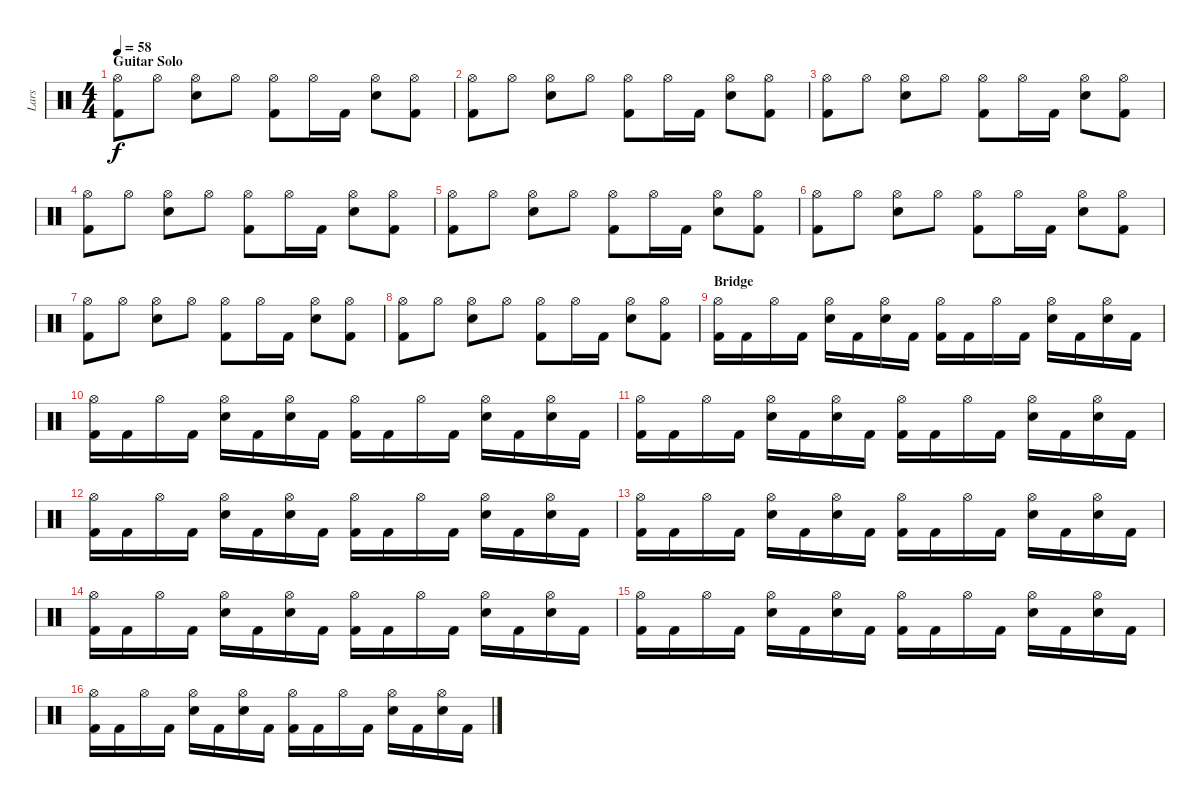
\track ("Lars " "Lars ") {instrument percussion}
\staff {score}
\articulation defaults
\ts (4 4)
\section ("" "Guitar Solo")
\tempo 58
\clef neutral
\ks c
("Kick (hit) 2" "Hi-Hat (open)").8{dy f} "Hi-Hat (open)".8 ("Snare (hit) 2" "Hi-Hat (open)").8 "Hi-Hat (open)".8 ("Kick (hit) 2" "Hi-Hat (open)").8 "Hi-Hat (open)".16 "Kick (hit) 2".16 ("Snare (hit) 2" "Hi-Hat (open)").8 ("Kick (hit) 2" "Hi-Hat (open)").8 |
("Kick (hit) 2" "Hi-Hat (open)").8 "Hi-Hat (open)".8 ("Snare (hit) 2" "Hi-Hat (open)").8 "Hi-Hat (open)".8 ("Kick (hit) 2" "Hi-Hat (open)").8 "Hi-Hat (open)".16 "Kick (hit) 2".16 ("Snare (hit) 2" "Hi-Hat (open)").8 ("Kick (hit) 2" "Hi-Hat (open)").8 |
("Kick (hit) 2" "Hi-Hat (open)").8 "Hi-Hat (open)".8 ("Snare (hit) 2" "Hi-Hat (open)").8 "Hi-Hat (open)".8 ("Kick (hit) 2" "Hi-Hat (open)").8 "Hi-Hat (open)".16 "Kick (hit) 2".16 ("Snare (hit) 2" "Hi-Hat (open)").8 ("Kick (hit) 2" "Hi-Hat (open)").8 |
("Kick (hit) 2" "Hi-Hat (open)").8 "Hi-Hat (open)".8 ("Snare (hit) 2" "Hi-Hat (open)").8 "Hi-Hat (open)".8 ("Kick (hit) 2" "Hi-Hat (open)").8 "Hi-Hat (open)".16 "Kick (hit) 2".16 ("Snare (hit) 2" "Hi-Hat (open)").8 ("Kick (hit) 2" "Hi-Hat (open)").8 |
("Kick (hit) 2" "Hi-Hat (open)").8 "Hi-Hat (open)".8 ("Snare (hit) 2" "Hi-Hat (open)").8 "Hi-Hat (open)".8 ("Kick (hit) 2" "Hi-Hat (open)").8 "Hi-Hat (open)".16 "Kick (hit) 2".16 ("Snare (hit) 2" "Hi-Hat (open)").8 ("Kick (hit) 2" "Hi-Hat (open)").8 |
("Kick (hit) 2" "Hi-Hat (open)").8 "Hi-Hat (open)".8 ("Snare (hit) 2" "Hi-Hat (open)").8 "Hi-Hat (open)".8 ("Kick (hit) 2" "Hi-Hat (open)").8 "Hi-Hat (open)".16 "Kick (hit) 2".16 ("Snare (hit) 2" "Hi-Hat (open)").8 ("Kick (hit) 2" "Hi-Hat (open)").8 |
("Kick (hit) 2" "Hi-Hat (open)").8 "Hi-Hat (open)".8 ("Snare (hit) 2" "Hi-Hat (open)").8 "Hi-Hat (open)".8 ("Kick (hit) 2" "Hi-Hat (open)").8 "Hi-Hat (open)".16 "Kick (hit) 2".16 ("Snare (hit) 2" "Hi-Hat (open)").8 ("Kick (hit) 2" "Hi-Hat (open)").8 |
("Kick (hit) 2" "Hi-Hat (open)").8 "Hi-Hat (open)".8 ("Snare (hit) 2" "Hi-Hat (open)").8 "Hi-Hat (open)".8 ("Kick (hit) 2" "Hi-Hat (open)").8 "Hi-Hat (open)".16 "Kick (hit) 2".16 ("Snare (hit) 2" "Hi-Hat (open)").8 ("Kick (hit) 2" "Hi-Hat (open)").8 |
\section ("" "Bridge")
("Kick (hit) 2" "Hi-Hat (open)").16 "Kick (hit) 2".16 "Hi-Hat (open)".16 "Kick (hit) 2".16 ("Snare (hit) 2" "Hi-Hat (open)").16 "Kick (hit) 2".16 ("Snare (hit) 2" "Hi-Hat (open)").16 "Kick (hit) 2".16 ("Kick (hit) 2" "Hi-Hat (open)").16 "Kick (hit) 2".16 "Hi-Hat (open)".16 "Kick (hit) 2".16 ("Snare (hit) 2" "Hi-Hat (open)").16 "Kick (hit) 2".16 ("Snare (hit) 2" "Hi-Hat (open)").16 "Kick (hit) 2".16 |
("Kick (hit) 2" "Hi-Hat (open)").16 "Kick (hit) 2".16 "Hi-Hat (open)".16 "Kick (hit) 2".16 ("Snare (hit) 2" "Hi-Hat (open)").16 "Kick (hit) 2".16 ("Snare (hit) 2" "Hi-Hat (open)").16 "Kick (hit) 2".16 ("Kick (hit) 2" "Hi-Hat (open)").16 "Kick (hit) 2".16 "Hi-Hat (open)".16 "Kick (hit) 2".16 ("Snare (hit) 2" "Hi-Hat (open)").16 "Kick (hit) 2".16 ("Snare (hit) 2" "Hi-Hat (open)").16 "Kick (hit) 2".16 |
("Kick (hit) 2" "Hi-Hat (open)").16 "Kick (hit) 2".16 "Hi-Hat (open)".16 "Kick (hit) 2".16 ("Snare (hit) 2" "Hi-Hat (open)").16 "Kick (hit) 2".16 ("Snare (hit) 2" "Hi-Hat (open)").16 "Kick (hit) 2".16 ("Kick (hit) 2" "Hi-Hat (open)").16 "Kick (hit) 2".16 "Hi-Hat (open)".16 "Kick (hit) 2".16 ("Snare (hit) 2" "Hi-Hat (open)").16 "Kick (hit) 2".16 ("Snare (hit) 2" "Hi-Hat (open)").16 "Kick (hit) 2".16 |
("Kick (hit) 2" "Hi-Hat (open)").16 "Kick (hit) 2".16 "Hi-Hat (open)".16 "Kick (hit) 2".16 ("Snare (hit) 2" "Hi-Hat (open)").16 "Kick (hit) 2".16 ("Snare (hit) 2" "Hi-Hat (open)").16 "Kick (hit) 2".16 ("Kick (hit) 2" "Hi-Hat (open)").16 "Kick (hit) 2".16 "Hi-Hat (open)".16 "Kick (hit) 2".16 ("Snare (hit) 2" "Hi-Hat (open)").16 "Kick (hit) 2".16 ("Snare (hit) 2" "Hi-Hat (open)").16 "Kick (hit) 2".16 |
("Kick (hit) 2" "Hi-Hat (open)").16 "Kick (hit) 2".16 "Hi-Hat (open)".16 "Kick (hit) 2".16 ("Snare (hit) 2" "Hi-Hat (open)").16 "Kick (hit) 2".16 ("Snare (hit) 2" "Hi-Hat (open)").16 "Kick (hit) 2".16 ("Kick (hit) 2" "Hi-Hat (open)").16 "Kick (hit) 2".16 "Hi-Hat (open)".16 "Kick (hit) 2".16 ("Snare (hit) 2" "Hi-Hat (open)").16 "Kick (hit) 2".16 ("Snare (hit) 2" "Hi-Hat (open)").16 "Kick (hit) 2".16 |
("Kick (hit) 2" "Hi-Hat (open)").16 "Kick (hit) 2".16 "Hi-Hat (open)".16 "Kick (hit) 2".16 ("Snare (hit) 2" "Hi-Hat (open)").16 "Kick (hit) 2".16 ("Snare (hit) 2" "Hi-Hat (open)").16 "Kick (hit) 2".16 ("Kick (hit) 2" "Hi-Hat (open)").16 "Kick (hit) 2".16 "Hi-Hat (open)".16 "Kick (hit) 2".16 ("Snare (hit) 2" "Hi-Hat (open)").16 "Kick (hit) 2".16 ("Snare (hit) 2" "Hi-Hat (open)").16 "Kick (hit) 2".16 |
("Kick (hit) 2" "Hi-Hat (open)").16 "Kick (hit) 2".16 "Hi-Hat (open)".16 "Kick (hit) 2".16 ("Snare (hit) 2" "Hi-Hat (open)").16 "Kick (hit) 2".16 ("Snare (hit) 2" "Hi-Hat (open)").16 "Kick (hit) 2".16 ("Kick (hit) 2" "Hi-Hat (open)").16 "Kick (hit) 2".16 "Hi-Hat (open)".16 "Kick (hit) 2".16 ("Snare (hit) 2" "Hi-Hat (open)").16 "Kick (hit) 2".16 ("Snare (hit) 2" "Hi-Hat (open)").16 "Kick (hit) 2".16 |
("Kick (hit) 2" "Hi-Hat (open)").16 "Kick (hit) 2".16 "Hi-Hat (open)".16 "Kick (hit) 2".16 ("Snare (hit) 2" "Hi-Hat (open)").16 "Kick (hit) 2".16 ("Snare (hit) 2" "Hi-Hat (open)").16 "Kick (hit) 2".16 ("Kick (hit) 2" "Hi-Hat (open)").16 "Kick (hit) 2".16 "Hi-Hat (open)".16 "Kick (hit) 2".16 ("Snare (hit) 2" "Hi-Hat (open)").16 "Kick (hit) 2".16 ("Snare (hit) 2" "Hi-Hat (open)").16 "Kick (hit) 2".16
